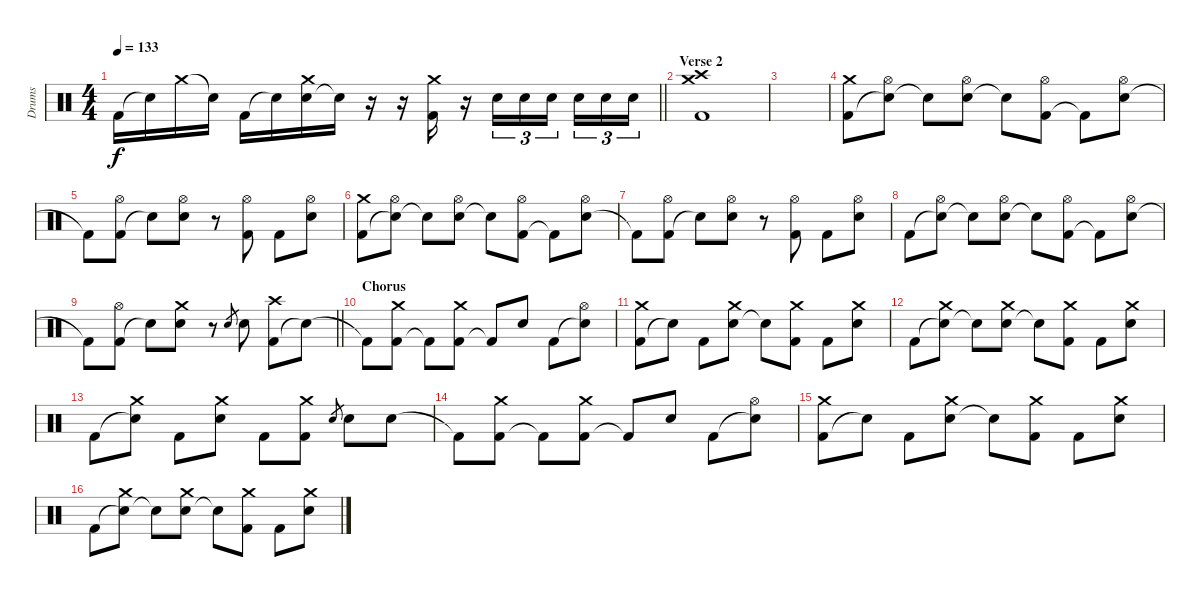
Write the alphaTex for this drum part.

\track ("Drums" "Drums") {instrument percussion}
\staff {score}
\articulation defaults
\ts (4 4)
\tempo 133
\clef neutral
\barLineRight lightlight
\ks c "Kick (hit) 2".16{dy f} "Snare (hit)"{t}.16 "Crash medium (hit)".16 "Snare (hit)"{t}.16 "Kick (hit) 2".16 "Electric Snare (hit)"{t}.16
("Electric Snare (hit)" "Crash medium (hit)").16 "Electric Snare (hit)"{t}.16 r.16 r.16 ("Kick (hit) 2" "Crash medium (hit)").16 r.16 "Electric Snare (hit)".16{tu (3 2)} "Electric Snare (hit)".16{tu (3 2)} "Electric Snare (hit)".16{tu (3 2) beam splitsecondary} "Electric Snare (hit)".16{tu (3 2)} "Electric Snare (hit)".16{tu (3 2)} "Electric Snare (hit)".16{tu (3 2)} |
\section ("" "Verse 2")
("Kick (hit) 2" "Crash medium (hit)" "Crash high (hit)").1 |
|
("Kick (hit) 2" "Crash medium (hit)").8 ("Snare (hit)"{t} "Hi-Hat (open)").8 "Snare (hit)"{t}.8 ("Electric Snare (hit)" "Hi-Hat (open)").8 "Snare (hit)"{t}.8 ("Kick (hit) 2" "Hi-Hat (open)").8 "Kick (hit) 2"{t}.8 ("Electric Snare (hit)" "Hi-Hat (open)").8 |
"Kick (hit) 2"{t}.8 ("Kick (hit) 2" "Hi-Hat (open)").8 "Electric Snare (hit)"{t}.8 ("Electric Snare (hit)" "Hi-Hat (open)").8 r.8 ("Kick (hit) 2" "Hi-Hat (open)").8 "Kick (hit) 2".8 ("Electric Snare (hit)" "Hi-Hat (open)").8 |
("Kick (hit) 2" "Crash medium (hit)").8 ("Snare (hit)"{t} "Hi-Hat (open)").8 "Snare (hit)"{t}.8 ("Electric Snare (hit)" "Hi-Hat (open)").8 "Snare (hit)"{t}.8 ("Kick (hit) 2" "Hi-Hat (open)").8 "Kick (hit) 2"{t}.8 ("Electric Snare (hit)" "Hi-Hat (open)").8 |
"Kick (hit) 2"{t}.8 ("Kick (hit) 2" "Hi-Hat (open)").8 "Electric Snare (hit)"{t}.8 ("Electric Snare (hit)" "Hi-Hat (open)").8 r.8 ("Kick (hit) 2" "Hi-Hat (open)").8 "Kick (hit) 2".8 ("Electric Snare (hit)" "Hi-Hat (open)").8 |
"Kick (hit) 2".8 ("Snare (hit)"{t} "Hi-Hat (open)").8 "Snare (hit)"{t}.8 ("Electric Snare (hit)" "Hi-Hat (open)").8 "Snare (hit)"{t}.8 ("Kick (hit) 2" "Hi-Hat (open)").8 "Kick (hit) 2"{t}.8 ("Electric Snare (hit)" "Hi-Hat (open)").8 |
\barLineRight lightlight "Kick (hit) 2"{t}.8
("Kick (hit) 2" "Hi-Hat (open)").8 "Electric Snare (hit)"{t}.8 ("Electric Snare (hit)" "Crash medium (hit)").8 r.8 "Electric Snare (hit)".8{gr} "Electric Snare (hit)".8 ("Kick (hit) 2" "Crash high (hit)").8 "Snare (hit)"{t}.8 |
\section ("" "Chorus")
"Kick (hit) 2"{t}.8 ("Kick (hit) 2" "Crash medium (hit)").8 "Kick (hit) 2"{t}.8 ("Kick (hit) 2" "Crash medium (hit)").8 "Kick (hit) 2"{t}.8 "Electric Snare (hit)".8 "Kick (hit) 2".8 ("Snare (hit)"{t} "Hi-Hat (open)").8 |
("Kick (hit) 2" "Crash medium (hit)").8 "Snare (hit)"{t}.8 "Kick (hit) 2".8 ("Electric Snare (hit)" "Crash medium (hit)").8 "Snare (hit)"{t}.8 ("Kick (hit) 2" "Crash medium (hit)").8 "Kick (hit) 2".8 ("Electric Snare (hit)" "Crash medium (hit)").8 |
"Kick (hit) 2".8 ("Snare (hit)"{t} "Crash medium (hit)").8 "Snare (hit)"{t}.8 ("Electric Snare (hit)" "Crash medium (hit)").8 "Snare (hit)"{t}.8 ("Kick (hit) 2" "Crash medium (hit)").8 "Kick (hit) 2".8 ("Electric Snare (hit)" "Crash medium (hit)").8 |
"Kick (hit) 2".8 ("Snare (hit)"{t} "Crash medium (hit)").8 "Kick (hit) 2".8 ("Electric Snare (hit)" "Crash medium (hit)").8 "Kick (hit) 2".8 ("Kick (hit) 2" "Crash medium (hit)").8 "Electric Snare (hit)".8{gr} "Electric Snare (hit)".8 "Electric Snare (hit)".8 |
"Kick (hit) 2"{t}.8 ("Kick (hit) 2" "Crash medium (hit)").8 "Kick (hit) 2"{t}.8 ("Kick (hit) 2" "Crash medium (hit)").8 "Kick (hit) 2"{t}.8 "Electric Snare (hit)".8 "Kick (hit) 2".8 ("Snare (hit)"{t} "Hi-Hat (open)").8 |
("Kick (hit) 2" "Crash medium (hit)").8 "Snare (hit)"{t}.8 "Kick (hit) 2".8 ("Electric Snare (hit)" "Crash medium (hit)").8 "Snare (hit)"{t}.8 ("Kick (hit) 2" "Crash medium (hit)").8 "Kick (hit) 2".8 ("Electric Snare (hit)" "Crash medium (hit)").8 |
"Kick (hit) 2".8 ("Snare (hit)"{t} "Crash medium (hit)").8 "Snare (hit)"{t}.8 ("Electric Snare (hit)" "Crash medium (hit)").8 "Snare (hit)"{t}.8 ("Kick (hit) 2" "Crash medium (hit)").8 "Kick (hit) 2".8 ("Electric Snare (hit)" "Crash medium (hit)").8
